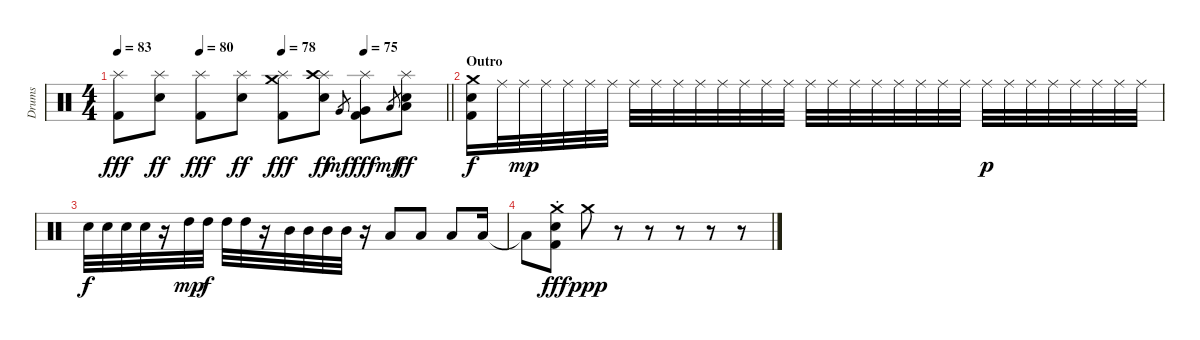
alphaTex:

\track ("Drums" "Drums") {instrument percussion}
\staff {score}
\articulation defaults
\ts (4 4)
\tempo 83
\tempo (80 0.25)
\tempo (78 0.5)
\tempo (75 0.75)
\clef neutral
\barLineRight lightlight
\ks aminor
("Splash (hit)" "Kick (hit) 2").8{dy fff} ("Splash (hit)" "Snare (hit) 2").8{dy ff} ("Splash (hit)" "Kick (hit) 2").8{dy fff} ("Splash (hit)" "Snare (hit) 2").8{dy ff} ("Splash (hit)" "Kick (hit) 2" "Crash medium (hit)").8{dy fff} ("Splash (hit)" "Snare (hit) 2" "Crash high (hit)").8{dy ff} "Very Low Tom (hit)".8{gr dy mf} ("Splash (hit)" "Kick (hit) 2" "Very Low Tom (hit)").8{dy fff} "Low Floor Tom (hit)".8{gr dy mf} ("Splash (hit)" "Snare (hit) 2" "Low Floor Tom (hit)").8{dy ff} |
\section ("" "Outro")
("Kick (hit) 2" "Snare (hit) 2" "Crash medium (hit)").16{dy f volume 10} "Ride (middle)".32 "Ride (middle)".32{dy mp} "Ride (middle)".32 "Ride (middle)".32 "Ride (middle)".32 "Ride (middle)".32 "Ride (middle)".32 "Ride (middle)".32 "Ride (middle)".32 "Ride (middle)".32 "Ride (middle)".32 "Ride (middle)".32 "Ride (middle)".32 "Ride (middle)".32 "Ride (middle)".32 "Ride (middle)".32 "Ride (middle)".32 "Ride (middle)".32 "Ride (middle)".32 "Ride (middle)".32 "Ride (middle)".32 "Ride (middle)".32 "Ride (middle)".32{dy p} "Ride (middle)".32 "Ride (middle)".32 "Ride (middle)".32 "Ride (middle)".32 "Ride (middle)".32 "Ride (middle)".32 "Ride (middle)".32 |
"Snare (hit) 2".32{dy f} "Snare (hit) 2".32 "Snare (hit) 2".32 "Snare (hit) 2".32 r.16 "High Tom (hit)".32{dy mp} "High Tom (hit)".32{dy f} "High Tom (hit)".32 "High Tom (hit)".32 r.16 "Mid Tom (hit)".32 "Mid Tom (hit)".32 "Mid Tom (hit)".32 "Mid Tom (hit)".32 r.16 "Low Tom (hit)".8 "Low Tom (hit)".8 "Low Tom (hit)".8 "Low Tom (hit)".16 |
"Low Tom (hit)"{t}.8 ("Kick (hit) 2"{st} "Snare (hit) 2" "Crash medium (hit)"{st}).8{dy fff} "Crash medium (hit)".8{dy ppp} r.8 r.8 r.8 r.8 r.8
